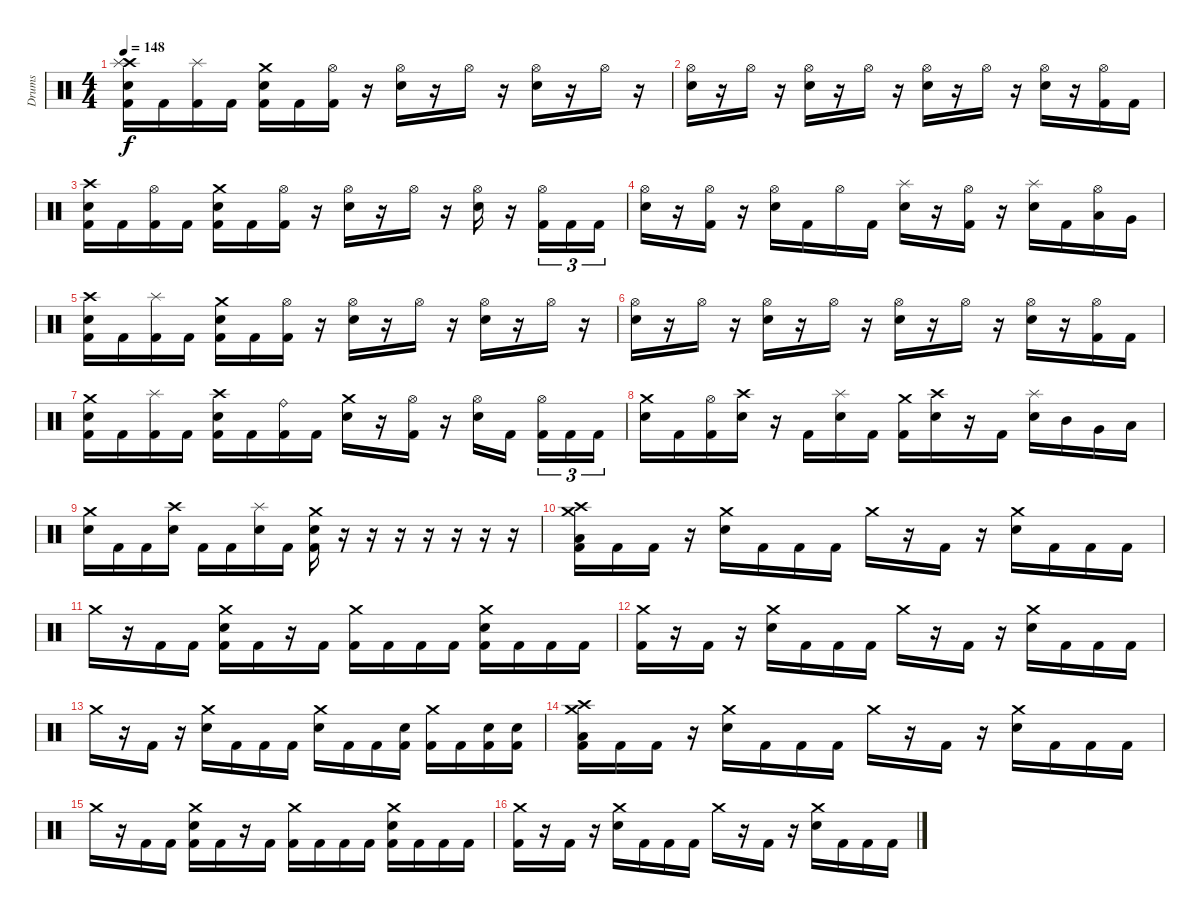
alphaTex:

\track ("Drums" "Drums") {instrument percussion}
\staff {score}
\articulation defaults
\ts (4 4)
\tempo 148
\clef neutral
\ks c
("Crash high (hit)" "Splash (hit)" "Electric Snare (hit)" "Kick (hit) 2").16{dy f} "Kick (hit) 2".16 ("Splash (hit)" "Kick (hit) 2").16 "Kick (hit) 2".16 ("Crash medium (hit)" "Electric Snare (hit)" "Kick (hit) 2").16 "Kick (hit) 2".16 ("Hi-Hat (open)" "Kick (hit) 2").16 r.16 ("Hi-Hat (open)" "Electric Snare (hit)").16 r.16 "Hi-Hat (open)".16 r.16 ("Hi-Hat (open)" "Electric Snare (hit)").16 r.16 "Hi-Hat (open)".16 r.16 |
("Hi-Hat (open)" "Electric Snare (hit)").16 r.16 "Hi-Hat (open)".16 r.16 ("Hi-Hat (open)" "Electric Snare (hit)").16 r.16 "Hi-Hat (open)".16 r.16 ("Hi-Hat (open)" "Electric Snare (hit)").16 r.16 "Hi-Hat (open)".16 r.16 ("Hi-Hat (open)" "Electric Snare (hit)").16 r.16 ("Hi-Hat (open)" "Kick (hit) 2").16 "Kick (hit) 2".16 |
("Crash high (hit)" "Electric Snare (hit)" "Kick (hit) 2").16 "Kick (hit) 2".16 ("Hi-Hat (open)" "Kick (hit) 2").16 "Kick (hit) 2".16 ("Crash medium (hit)" "Electric Snare (hit)" "Kick (hit) 2").16 "Kick (hit) 2".16 ("Hi-Hat (open)" "Kick (hit) 2").16 r.16 ("Hi-Hat (open)" "Electric Snare (hit)").16 r.16 "Hi-Hat (open)".16 r.16 ("Hi-Hat (open)" "Electric Snare (hit)").16 r.16 ("Hi-Hat (open)" "Kick (hit) 2").16{tu (3 2)} "Kick (hit) 2".16{tu (3 2)} "Kick (hit) 2".16{tu (3 2)} |
("Hi-Hat (open)" "Electric Snare (hit)").16 r.16 ("Hi-Hat (open)" "Kick (hit) 2").16 r.16 ("Hi-Hat (open)" "Electric Snare (hit)").16 "Kick (hit) 2".16 "Hi-Hat (open)".16 "Kick (hit) 2".16 ("Splash (hit)" "Electric Snare (hit)").16 r.16 ("Hi-Hat (open)" "Kick (hit) 2").16 r.16 ("Splash (hit)" "Electric Snare (hit)").16 "Kick (hit) 2".16 ("Hi-Hat (open)" "Low Tom (hit)").16 "Very Low Tom (hit)".16 |
("Crash high (hit)" "Electric Snare (hit)" "Kick (hit) 2").16 "Kick (hit) 2".16 ("Splash (hit)" "Kick (hit) 2").16 "Kick (hit) 2".16 ("Crash medium (hit)" "Electric Snare (hit)" "Kick (hit) 2").16 "Kick (hit) 2".16 ("Hi-Hat (open)" "Kick (hit) 2").16 r.16 ("Hi-Hat (open)" "Electric Snare (hit)").16 r.16 "Hi-Hat (open)".16 r.16 ("Hi-Hat (open)" "Electric Snare (hit)").16 r.16 "Hi-Hat (open)".16 r.16 |
("Hi-Hat (open)" "Electric Snare (hit)").16 r.16 "Hi-Hat (open)".16 r.16 ("Hi-Hat (open)" "Electric Snare (hit)").16 r.16 "Hi-Hat (open)".16 r.16 ("Hi-Hat (open)" "Electric Snare (hit)").16 r.16 "Hi-Hat (open)".16 r.16 ("Hi-Hat (open)" "Electric Snare (hit)").16 r.16 ("Hi-Hat (open)" "Kick (hit) 2").16 "Kick (hit) 2".16 |
("Crash medium (hit)" "Electric Snare (hit)" "Kick (hit) 2").16 "Kick (hit) 2".16 ("Splash (hit)" "Kick (hit) 2").16 "Kick (hit) 2".16 ("Crash high (hit)" "Electric Snare (hit)" "Kick (hit) 2").16 "Kick (hit) 2".16 ("Ride (bell)" "Kick (hit) 2").16 "Kick (hit) 2".16 ("Crash medium (hit)" "Electric Snare (hit)").16 r.16 ("Hi-Hat (open)" "Kick (hit) 2").16 r.16 ("Hi-Hat (open)" "Electric Snare (hit)").16 "Kick (hit) 2".16 ("Hi-Hat (open)" "Kick (hit) 2").16{tu (3 2)} "Kick (hit) 2".16{tu (3 2)} "Kick (hit) 2".16{tu (3 2)} |
("Crash medium (hit)" "Electric Snare (hit)").16 "Kick (hit) 2".16 ("Hi-Hat (open)" "Kick (hit) 2").16 ("Crash high (hit)" "Electric Snare (hit)").16 r.16 "Kick (hit) 2".16 ("Splash (hit)" "Electric Snare (hit)").16 "Kick (hit) 2".16 ("Crash medium (hit)" "Kick (hit) 2").16 ("Crash high (hit)" "Electric Snare (hit)").16 r.16 "Kick (hit) 2".16 ("Splash (hit)" "Electric Snare (hit)").16 "Mid Tom (hit)".16 "Very Low Tom (hit)".16 "Low Floor Tom (hit)".16 |
("Crash medium (hit)" "Electric Snare (hit)").16 "Kick (hit) 2".16 "Kick (hit) 2".16 ("Crash high (hit)" "Electric Snare (hit)").16 "Kick (hit) 2".16 "Kick (hit) 2".16 ("Splash (hit)" "Electric Snare (hit)").16 "Kick (hit) 2".16 ("Crash medium (hit)" "Electric Snare (hit)" "Kick (hit) 2").16 r.16 r.16 r.16 r.16 r.16 r.16 r.16 |
("Crash high (hit)" "Crash medium (hit)" "Low Floor Tom (hit)" "Kick (hit) 2").16 "Kick (hit) 2".16 "Kick (hit) 2".16 r.16 ("Crash medium (hit)" "Electric Snare (hit)").16 "Kick (hit) 2".16 "Kick (hit) 2".16 "Kick (hit) 2".16 "Crash medium (hit)".16 r.16 "Kick (hit) 2".16 r.16 ("Crash medium (hit)" "Electric Snare (hit)").16 "Kick (hit) 2".16 "Kick (hit) 2".16 "Kick (hit) 2".16 |
"Crash medium (hit)".16 r.16 "Kick (hit) 2".16 "Kick (hit) 2".16 ("Crash medium (hit)" "Electric Snare (hit)" "Kick (hit) 2").16 "Kick (hit) 2".16 r.16 "Kick (hit) 2".16 ("Crash medium (hit)" "Kick (hit) 2").16 "Kick (hit) 2".16 "Kick (hit) 2".16 "Kick (hit) 2".16 ("Crash medium (hit)" "Electric Snare (hit)" "Kick (hit) 2").16 "Kick (hit) 2".16 "Kick (hit) 2".16 "Kick (hit) 2".16 |
("Crash medium (hit)" "Kick (hit) 2").16 r.16 "Kick (hit) 2".16 r.16 ("Crash medium (hit)" "Electric Snare (hit)").16 "Kick (hit) 2".16 "Kick (hit) 2".16 "Kick (hit) 2".16 "Crash medium (hit)".16 r.16 "Kick (hit) 2".16 r.16 ("Crash medium (hit)" "Electric Snare (hit)").16 "Kick (hit) 2".16 "Kick (hit) 2".16 "Kick (hit) 2".16 |
"Crash medium (hit)".16 r.16 "Kick (hit) 2".16 r.16 ("Crash medium (hit)" "Electric Snare (hit)").16 "Kick (hit) 2".16 "Kick (hit) 2".16 "Kick (hit) 2".16 ("Crash medium (hit)" "Electric Snare (hit)").16 "Kick (hit) 2".16 "Kick (hit) 2".16 ("Electric Snare (hit)" "Kick (hit) 2").16 ("Crash medium (hit)" "Kick (hit) 2").16 "Kick (hit) 2".16 ("Electric Snare (hit)" "Kick (hit) 2").16 ("Electric Snare (hit)" "Kick (hit) 2").16 |
("Crash high (hit)" "Crash medium (hit)" "Low Floor Tom (hit)" "Kick (hit) 2").16 "Kick (hit) 2".16 "Kick (hit) 2".16 r.16 ("Crash medium (hit)" "Electric Snare (hit)").16 "Kick (hit) 2".16 "Kick (hit) 2".16 "Kick (hit) 2".16 "Crash medium (hit)".16 r.16 "Kick (hit) 2".16 r.16 ("Crash medium (hit)" "Electric Snare (hit)").16 "Kick (hit) 2".16 "Kick (hit) 2".16 "Kick (hit) 2".16 |
"Crash medium (hit)".16 r.16 "Kick (hit) 2".16 "Kick (hit) 2".16 ("Crash medium (hit)" "Electric Snare (hit)" "Kick (hit) 2").16 "Kick (hit) 2".16 r.16 "Kick (hit) 2".16 ("Crash medium (hit)" "Kick (hit) 2").16 "Kick (hit) 2".16 "Kick (hit) 2".16 "Kick (hit) 2".16 ("Crash medium (hit)" "Electric Snare (hit)" "Kick (hit) 2").16 "Kick (hit) 2".16 "Kick (hit) 2".16 "Kick (hit) 2".16 |
("Crash medium (hit)" "Kick (hit) 2").16 r.16 "Kick (hit) 2".16 r.16 ("Crash medium (hit)" "Electric Snare (hit)").16 "Kick (hit) 2".16 "Kick (hit) 2".16 "Kick (hit) 2".16 "Crash medium (hit)".16 r.16 "Kick (hit) 2".16 r.16 ("Crash medium (hit)" "Electric Snare (hit)").16 "Kick (hit) 2".16 "Kick (hit) 2".16 "Kick (hit) 2".16
